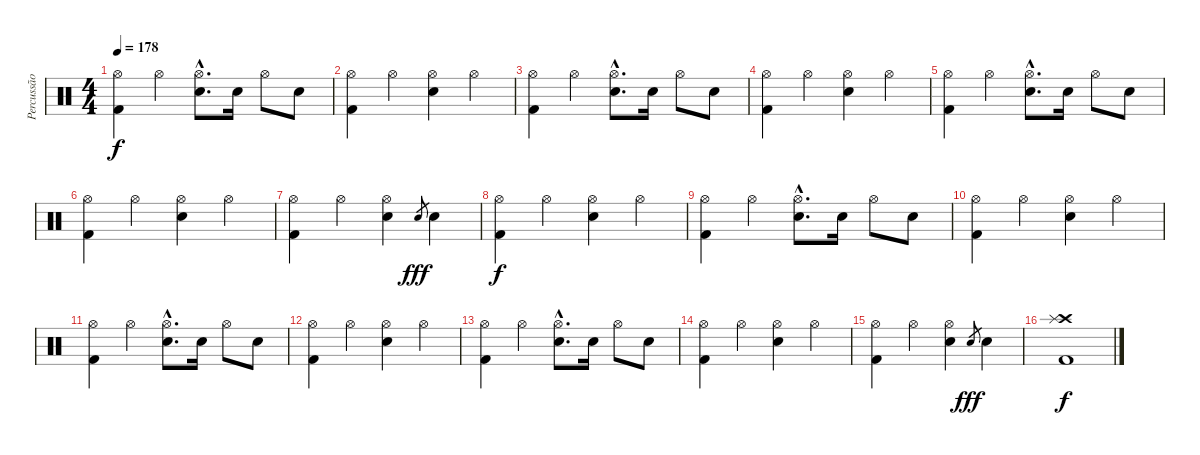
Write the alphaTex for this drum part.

\track ("Percussão" "Percussão") {instrument percussion}
\staff {score}
\articulation defaults
\ts (4 4)
\tempo 178
\clef neutral
\ks c
("Hi-Hat (open)" "Kick (hit) 2").4{dy f} "Hi-Hat (open)".4 ("Hi-Hat (open)"{hac} "Snare (hit) 2"{hac}).8{d} "Snare (hit) 2".16 "Hi-Hat (open)".8 "Snare (hit) 2".8 |
("Hi-Hat (open)" "Kick (hit) 2").4 "Hi-Hat (open)".4 ("Hi-Hat (open)" "Snare (hit) 2").4 "Hi-Hat (open)".4 |
("Hi-Hat (open)" "Kick (hit) 2").4 "Hi-Hat (open)".4 ("Hi-Hat (open)"{hac} "Snare (hit) 2"{hac}).8{d} "Snare (hit) 2".16 "Hi-Hat (open)".8 "Snare (hit) 2".8 |
("Hi-Hat (open)" "Kick (hit) 2").4 "Hi-Hat (open)".4 ("Hi-Hat (open)" "Snare (hit) 2").4 "Hi-Hat (open)".4 |
("Hi-Hat (open)" "Kick (hit) 2").4 "Hi-Hat (open)".4 ("Hi-Hat (open)"{hac} "Snare (hit) 2"{hac}).8{d} "Snare (hit) 2".16 "Hi-Hat (open)".8 "Snare (hit) 2".8 |
("Hi-Hat (open)" "Kick (hit) 2").4 "Hi-Hat (open)".4 ("Hi-Hat (open)" "Snare (hit) 2").4 "Hi-Hat (open)".4 |
("Hi-Hat (open)" "Kick (hit) 2").4 "Hi-Hat (open)".4 ("Hi-Hat (open)" "Snare (hit) 2").4 "Snare (hit) 2".8{gr dy fff} "Snare (hit) 2".4 |
("Hi-Hat (open)" "Kick (hit) 2").4{dy f} "Hi-Hat (open)".4 ("Hi-Hat (open)" "Snare (hit) 2").4 "Hi-Hat (open)".4 |
("Hi-Hat (open)" "Kick (hit) 2").4 "Hi-Hat (open)".4 ("Hi-Hat (open)"{hac} "Snare (hit) 2"{hac}).8{d} "Snare (hit) 2".16 "Hi-Hat (open)".8 "Snare (hit) 2".8 |
("Hi-Hat (open)" "Kick (hit) 2").4 "Hi-Hat (open)".4 ("Hi-Hat (open)" "Snare (hit) 2").4 "Hi-Hat (open)".4 |
("Hi-Hat (open)" "Kick (hit) 2").4 "Hi-Hat (open)".4 ("Hi-Hat (open)"{hac} "Snare (hit) 2"{hac}).8{d} "Snare (hit) 2".16 "Hi-Hat (open)".8 "Snare (hit) 2".8 |
("Hi-Hat (open)" "Kick (hit) 2").4 "Hi-Hat (open)".4 ("Hi-Hat (open)" "Snare (hit) 2").4 "Hi-Hat (open)".4 |
("Hi-Hat (open)" "Kick (hit) 2").4 "Hi-Hat (open)".4 ("Hi-Hat (open)"{hac} "Snare (hit) 2"{hac}).8{d} "Snare (hit) 2".16 "Hi-Hat (open)".8 "Snare (hit) 2".8 |
("Hi-Hat (open)" "Kick (hit) 2").4 "Hi-Hat (open)".4 ("Hi-Hat (open)" "Snare (hit) 2").4 "Hi-Hat (open)".4 |
("Hi-Hat (open)" "Kick (hit) 2").4 "Hi-Hat (open)".4 ("Hi-Hat (open)" "Snare (hit) 2").4 "Snare (hit) 2".8{gr dy fff} "Snare (hit) 2".4 |
("Crash high (hit)" "Splash (hit)" "Kick (hit) 2").1{dy f}
